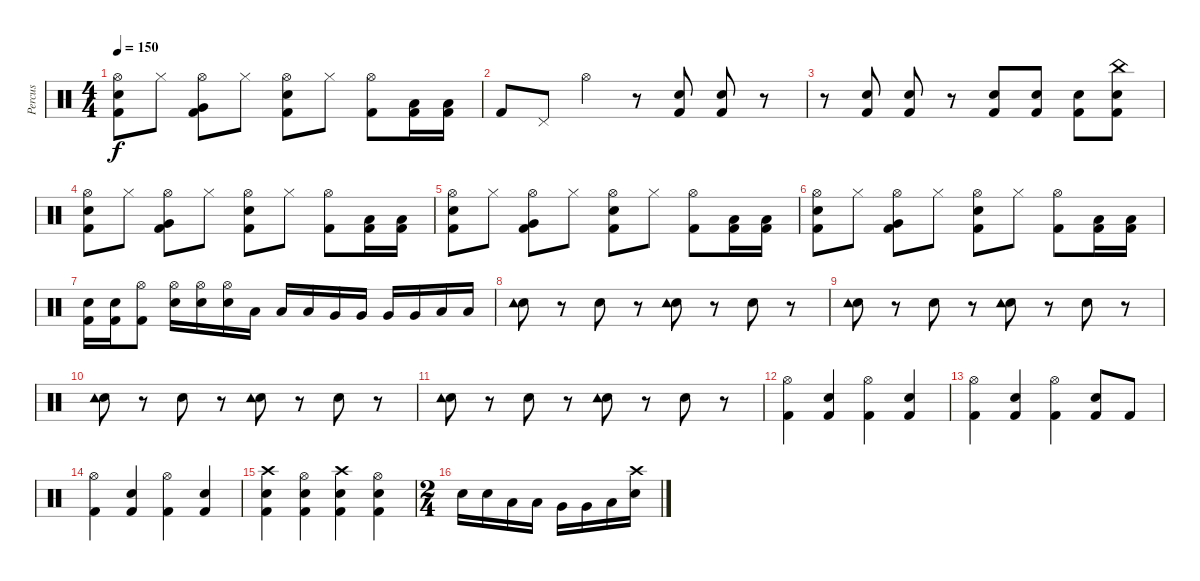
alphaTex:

\track ("Percus" "Percus") {instrument percussion}
\staff {score}
\articulation defaults
\ts (4 4)
\tempo 150
\clef neutral
\ks c
("Hi-Hat (open)" "Snare (hit) 2" "Kick (hit) 2").8{dy f} "Hi-Hat (closed)".8 ("Hi-Hat (open)" "Very Low Tom (hit)" "Kick (hit) 2").8 "Hi-Hat (closed)".8 ("Hi-Hat (open)" "Snare (hit) 2" "Kick (hit) 2").8 "Hi-Hat (closed)".8 ("Hi-Hat (open)" "Kick (hit) 2").8 ("Kick (hit) 2" "Low Floor Tom (hit)").16 ("Kick (hit) 2" "Low Floor Tom (hit)").16 |
"Kick (hit) 2".8 "Pedal Hi-Hat (hit)".8 "Hi-Hat (open)".4 r.8 ("Snare (hit) 2" "Kick (hit) 2").8 ("Snare (hit) 2" "Kick (hit) 2").8 r.8 |
r.8 ("Snare (hit) 2" "Kick (hit) 2").8 ("Snare (hit) 2" "Kick (hit) 2").8 r.8 ("Snare (hit) 2" "Kick (hit) 2").8 ("Snare (hit) 2" "Kick (hit) 2").8 ("Snare (hit) 2" "Kick (hit) 2").8 ("China (hit)" "Snare (hit) 2" "Kick (hit) 2").8 |
("Hi-Hat (open)" "Snare (hit) 2" "Kick (hit) 2").8 "Hi-Hat (closed)".8 ("Hi-Hat (open)" "Very Low Tom (hit)" "Kick (hit) 2").8 "Hi-Hat (closed)".8 ("Hi-Hat (open)" "Snare (hit) 2" "Kick (hit) 2").8 "Hi-Hat (closed)".8 ("Hi-Hat (open)" "Kick (hit) 2").8 ("Kick (hit) 2" "Low Floor Tom (hit)").16 ("Kick (hit) 2" "Low Floor Tom (hit)").16 |
("Hi-Hat (open)" "Snare (hit) 2" "Kick (hit) 2").8 "Hi-Hat (closed)".8 ("Hi-Hat (open)" "Very Low Tom (hit)" "Kick (hit) 2").8 "Hi-Hat (closed)".8 ("Hi-Hat (open)" "Snare (hit) 2" "Kick (hit) 2").8 "Hi-Hat (closed)".8 ("Hi-Hat (open)" "Kick (hit) 2").8 ("Kick (hit) 2" "Low Floor Tom (hit)").16 ("Kick (hit) 2" "Low Floor Tom (hit)").16 |
("Hi-Hat (open)" "Snare (hit) 2" "Kick (hit) 2").8 "Hi-Hat (closed)".8 ("Hi-Hat (open)" "Very Low Tom (hit)" "Kick (hit) 2").8 "Hi-Hat (closed)".8 ("Hi-Hat (open)" "Snare (hit) 2" "Kick (hit) 2").8 "Hi-Hat (closed)".8 ("Hi-Hat (open)" "Kick (hit) 2").8 ("Kick (hit) 2" "Low Floor Tom (hit)").16 ("Kick (hit) 2" "Low Floor Tom (hit)").16 |
("Snare (hit) 2" "Kick (hit) 2").16 ("Snare (hit) 2" "Kick (hit) 2").16 ("Hi-Hat (open)" "Kick (hit) 2").8 ("Hi-Hat (open)" "Snare (hit) 2").16 ("Hi-Hat (open)" "Snare (hit) 2").16 ("Hi-Hat (open)" "Snare (hit) 2").16 "Low Tom (hit)".16 "Low Tom (hit)".16 "Low Tom (hit)".16 "Very Low Tom (hit)".16 "Very Low Tom (hit)".16 "Very Low Tom (hit)".16 "Very Low Tom (hit)".16 "Low Floor Tom (hit)".16 "Low Floor Tom (hit)".16 |
("Hand Clap (hit)" "Tambourine (hit)").8 r.8 "Hand Clap (hit)".8 r.8 ("Hand Clap (hit)" "Tambourine (hit)").8 r.8 "Hand Clap (hit)".8 r.8 |
("Hand Clap (hit)" "Tambourine (hit)").8 r.8 "Hand Clap (hit)".8 r.8 ("Hand Clap (hit)" "Tambourine (hit)").8 r.8 "Hand Clap (hit)".8 r.8 |
("Hand Clap (hit)" "Tambourine (hit)").8 r.8 "Hand Clap (hit)".8 r.8 ("Hand Clap (hit)" "Tambourine (hit)").8 r.8 "Hand Clap (hit)".8 r.8 |
("Hand Clap (hit)" "Tambourine (hit)").8 r.8 "Hand Clap (hit)".8 r.8 ("Hand Clap (hit)" "Tambourine (hit)").8 r.8 "Hand Clap (hit)".8 r.8 |
("Hi-Hat (open)" "Kick (hit) 2").4 ("Electric Snare (hit)" "Kick (hit) 2").4 ("Hi-Hat (open)" "Kick (hit) 2").4 ("Snare (hit) 2" "Kick (hit) 2").4 |
("Hi-Hat (open)" "Kick (hit) 2").4 ("Electric Snare (hit)" "Kick (hit) 2").4 ("Hi-Hat (open)" "Kick (hit) 2").4 ("Snare (hit) 2" "Kick (hit) 2").8 "Kick (hit) 2".8 |
("Hi-Hat (open)" "Kick (hit) 2").4 ("Electric Snare (hit)" "Kick (hit) 2").4 ("Hi-Hat (open)" "Kick (hit) 2").4 ("Snare (hit) 2" "Kick (hit) 2").4 |
("Crash high (hit)" "Snare (hit) 2" "Kick (hit) 2").4 ("Hi-Hat (open)" "Snare (hit) 2" "Kick (hit) 2").4 ("Crash high (hit)" "Snare (hit) 2" "Kick (hit) 2").4 ("Hi-Hat (open)" "Snare (hit) 2" "Kick (hit) 2").4 |
\ts (2 4)
"Electric Snare (hit)".16 "Electric Snare (hit)".16 "Low Tom (hit)".16 "Low Tom (hit)".16 "Very Low Tom (hit)".16 "Very Low Tom (hit)".16 "Low Floor Tom (hit)".16 ("Crash high (hit)" "Electric Snare (hit)").16
